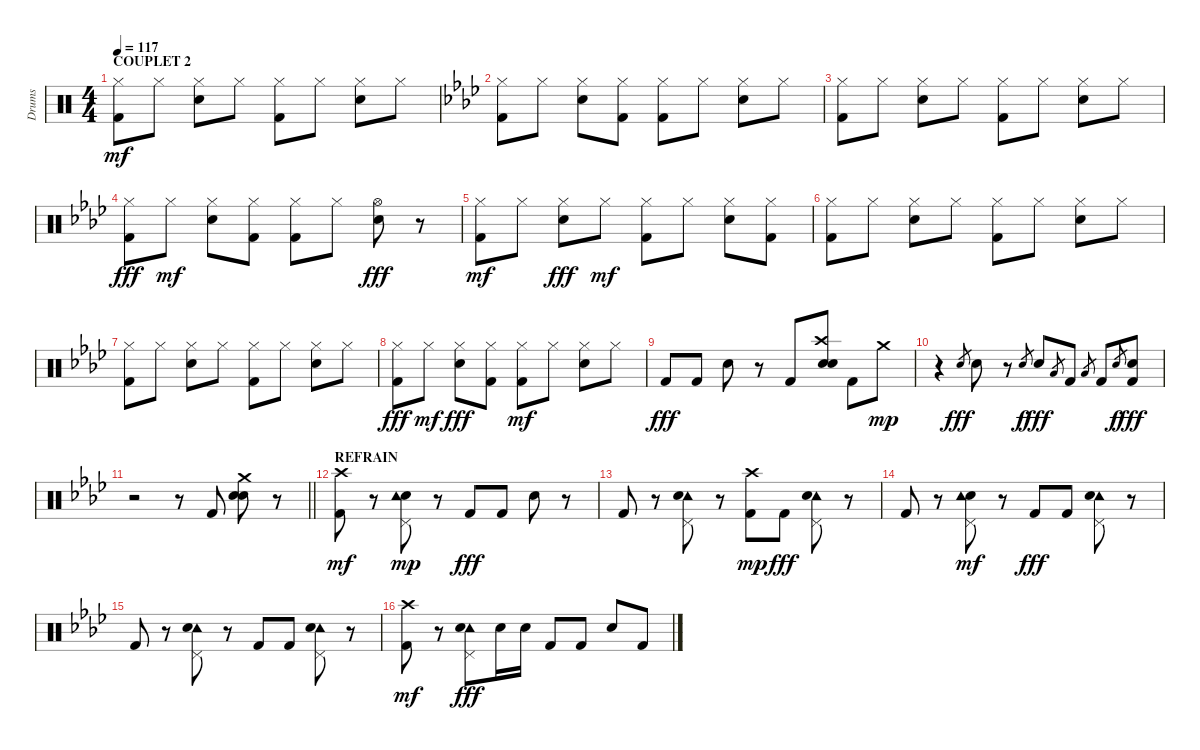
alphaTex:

\track ("Drums" "Drums") {instrument percussion}
\staff {score}
\articulation defaults
\ts (4 4)
\section ("" "COUPLET 2")
\tempo 117
\clef neutral
\ks c
("Kick (hit) 2" "Hi-Hat (closed)").8{dy mf} "Hi-Hat (closed)".8 ("Snare (hit) 2" "Hi-Hat (closed)").8 "Hi-Hat (closed)".8 ("Kick (hit) 2" "Hi-Hat (closed)").8 "Hi-Hat (closed)".8 ("Snare (hit) 2" "Hi-Hat (closed)").8 "Hi-Hat (closed)".8 |
\ks ab
("Kick (hit) 2" "Hi-Hat (closed)").8 "Hi-Hat (closed)".8 ("Snare (hit) 2" "Hi-Hat (closed)").8 ("Kick (hit) 2" "Hi-Hat (closed)").8 ("Kick (hit) 2" "Hi-Hat (closed)").8 "Hi-Hat (closed)".8 ("Snare (hit) 2" "Hi-Hat (closed)").8 "Hi-Hat (closed)".8 |
("Kick (hit) 2" "Hi-Hat (closed)").8 "Hi-Hat (closed)".8 ("Snare (hit) 2" "Hi-Hat (closed)").8 "Hi-Hat (closed)".8 ("Kick (hit) 2" "Hi-Hat (closed)").8 "Hi-Hat (closed)".8 ("Snare (hit) 2" "Hi-Hat (closed)").8 "Hi-Hat (closed)".8 |
("Hi-Hat (closed)" "Kick (hit) 2").8{dy fff} "Hi-Hat (closed)".8{dy mf} ("Snare (hit) 2" "Hi-Hat (closed)").8 ("Kick (hit) 2" "Hi-Hat (closed)").8 ("Kick (hit) 2" "Hi-Hat (closed)").8 "Hi-Hat (closed)".8 ("Hi-Hat (open)" "Snare (hit) 2").8{dy fff} r.8 |
("Kick (hit) 2" "Hi-Hat (closed)").8{dy mf} "Hi-Hat (closed)".8 ("Hi-Hat (closed)" "Snare (hit) 2").8{dy fff} "Hi-Hat (closed)".8{dy mf} ("Kick (hit) 2" "Hi-Hat (closed)").8 "Hi-Hat (closed)".8 ("Snare (hit) 2" "Hi-Hat (closed)").8 ("Kick (hit) 2" "Hi-Hat (closed)").8 |
("Kick (hit) 2" "Hi-Hat (closed)").8 "Hi-Hat (closed)".8 ("Snare (hit) 2" "Hi-Hat (closed)").8 "Hi-Hat (closed)".8 ("Kick (hit) 2" "Hi-Hat (closed)").8 "Hi-Hat (closed)".8 ("Snare (hit) 2" "Hi-Hat (closed)").8 "Hi-Hat (closed)".8 |
("Kick (hit) 2" "Hi-Hat (closed)").8 "Hi-Hat (closed)".8 ("Snare (hit) 2" "Hi-Hat (closed)").8 "Hi-Hat (closed)".8 ("Kick (hit) 2" "Hi-Hat (closed)").8 "Hi-Hat (closed)".8 ("Snare (hit) 2" "Hi-Hat (closed)").8 "Hi-Hat (closed)".8 |
("Hi-Hat (closed)" "Kick (hit) 2").8{dy fff} "Hi-Hat (closed)".8{dy mf} ("Hi-Hat (closed)" "Snare (hit) 2").8{dy fff} ("Hi-Hat (closed)" "Kick (hit) 2").8 ("Kick (hit) 2" "Hi-Hat (closed)").8{dy mf} "Hi-Hat (closed)".8 ("Snare (hit) 2" "Hi-Hat (closed)").8 "Hi-Hat (closed)".8 |
"Kick (hit) 2".8{dy fff} "Kick (hit) 2".8 "Snare (hit) 2".8 r.8 "Kick (hit) 2".8 ("Crash high (hit)" "Electric Snare (hit)" "Snare (hit) 2").8 "Kick (hit) 2".8 "Crash medium (hit)".8{dy mp} |
r.4 "Electric Snare (hit)".8{gr dy fff} "Snare (hit) 2".8 r.8 "Electric Snare (hit)".8{gr dy f} "Snare (hit) 2".8{dy fff} "Low Tom (hit)".8{gr} "Kick (hit) 2".8 "Low Floor Tom (hit)".8{gr} "Kick (hit) 2".8 "Electric Snare (hit)".8{gr dy f} ("Kick (hit) 2" "Snare (hit) 2").8{dy fff} |
\barLineRight lightlight
r.2 r.8 "Kick (hit) 2".8 ("Crash medium (hit)" "Electric Snare (hit)" "Snare (hit) 2").8 r.8 |
\section ("" "REFRAIN")
("Kick (hit) 2" "Crash high (hit)").8{dy mf} r.8 ("Pedal Hi-Hat (hit)" "Snare (hit) 2" "Tambourine (hit)").8{dy mp} r.8 "Kick (hit) 2".8{dy fff} "Kick (hit) 2".8 "Snare (hit) 2".8 r.8 |
"Kick (hit) 2".8 r.8 ("Tambourine (hit)" "Pedal Hi-Hat (hit)" "Snare (hit) 2").8 r.8 ("Kick (hit) 2" "Crash high (hit)").8{dy mp} "Kick (hit) 2".8{dy fff} ("Tambourine (hit)" "Pedal Hi-Hat (hit)" "Snare (hit) 2").8 r.8 |
"Kick (hit) 2".8 r.8 ("Snare (hit) 2" "Tambourine (hit)" "Pedal Hi-Hat (hit)").8{dy mf} r.8 "Kick (hit) 2".8{dy fff} "Kick (hit) 2".8 ("Tambourine (hit)" "Pedal Hi-Hat (hit)" "Snare (hit) 2").8 r.8 |
"Kick (hit) 2".8 r.8 ("Tambourine (hit)" "Pedal Hi-Hat (hit)" "Snare (hit) 2").8 r.8 "Kick (hit) 2".8 "Kick (hit) 2".8 ("Tambourine (hit)" "Pedal Hi-Hat (hit)" "Snare (hit) 2").8 r.8 |
("Kick (hit) 2" "Crash high (hit)").8{dy mf} r.8 ("Tambourine (hit)" "Pedal Hi-Hat (hit)" "Snare (hit) 2").8{dy fff} "Snare (hit) 2".16 "Snare (hit) 2".16 "Kick (hit) 2".8 "Kick (hit) 2".8 "Snare (hit) 2".8 "Kick (hit) 2".8
